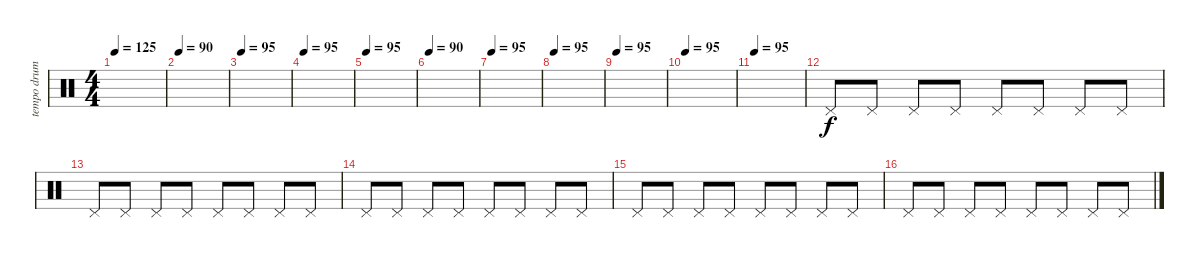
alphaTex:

\track ("tempo drums" "tempo drum") {instrument percussion}
\staff {score}
\articulation defaults
\ts (4 4)
\tempo 125
\clef neutral
\ks c
|
\tempo 90
|
\tempo 95
|
\tempo 95
|
\tempo 95
|
\tempo 90
|
\tempo 95
|
\tempo 95
|
\tempo 95
|
\tempo 95
|
\tempo 95
|
"Pedal Hi-Hat (hit)".8 "Pedal Hi-Hat (hit)".8 "Pedal Hi-Hat (hit)".8 "Pedal Hi-Hat (hit)".8 "Pedal Hi-Hat (hit)".8 "Pedal Hi-Hat (hit)".8 "Pedal Hi-Hat (hit)".8 "Pedal Hi-Hat (hit)".8 |
"Pedal Hi-Hat (hit)".8 "Pedal Hi-Hat (hit)".8 "Pedal Hi-Hat (hit)".8 "Pedal Hi-Hat (hit)".8 "Pedal Hi-Hat (hit)".8 "Pedal Hi-Hat (hit)".8 "Pedal Hi-Hat (hit)".8 "Pedal Hi-Hat (hit)".8 |
"Pedal Hi-Hat (hit)".8 "Pedal Hi-Hat (hit)".8 "Pedal Hi-Hat (hit)".8 "Pedal Hi-Hat (hit)".8 "Pedal Hi-Hat (hit)".8 "Pedal Hi-Hat (hit)".8 "Pedal Hi-Hat (hit)".8 "Pedal Hi-Hat (hit)".8 |
"Pedal Hi-Hat (hit)".8 "Pedal Hi-Hat (hit)".8 "Pedal Hi-Hat (hit)".8 "Pedal Hi-Hat (hit)".8 "Pedal Hi-Hat (hit)".8 "Pedal Hi-Hat (hit)".8 "Pedal Hi-Hat (hit)".8 "Pedal Hi-Hat (hit)".8 |
"Pedal Hi-Hat (hit)".8 "Pedal Hi-Hat (hit)".8 "Pedal Hi-Hat (hit)".8 "Pedal Hi-Hat (hit)".8 "Pedal Hi-Hat (hit)".8 "Pedal Hi-Hat (hit)".8 "Pedal Hi-Hat (hit)".8 "Pedal Hi-Hat (hit)".8
